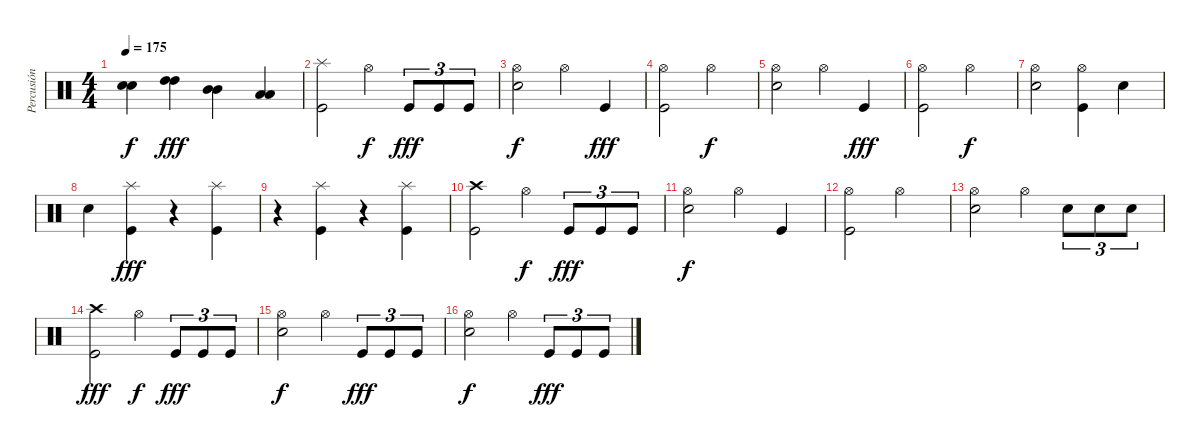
\track ("Percusión" "Percusión") {instrument percussion}
\staff {score}
\articulation defaults
\ts (4 4)
\tempo 175
\clef neutral
\ks c
("Electric Snare (hit)" "Electric Snare (hit)").4{bd 480 dy f} ("High Tom (hit)" "High Tom (hit)").4{dy fff} ("Mid Tom (hit)" "Mid Tom (hit)").4 ("Low Tom (hit)" "Low Tom (hit)").4 |
("Splash (hit)" "Kick (hit)").2 "Hi-Hat (open)".4{dy f} "Kick (hit)".8{tu (3 2) dy fff} "Kick (hit)".8{tu (3 2)} "Kick (hit)".8{tu (3 2)} |
("Hi-Hat (open)" "Electric Snare (hit)").2{dy f} "Hi-Hat (open)".4 "Kick (hit)".4{dy fff} |
("Hi-Hat (open)" "Kick (hit)").2 "Hi-Hat (open)".2{dy f} |
("Hi-Hat (open)" "Electric Snare (hit)").2 "Hi-Hat (open)".4 "Kick (hit)".4{dy fff} |
("Hi-Hat (open)" "Kick (hit)").2 "Hi-Hat (open)".2{dy f} |
("Hi-Hat (open)" "Electric Snare (hit)").2 ("Hi-Hat (open)" "Kick (hit)").4 "Electric Snare (hit)".4 |
"Electric Snare (hit)".4 ("Splash (hit)" "Kick (hit)").4{dy fff} r.4 ("Splash (hit)" "Kick (hit)").4 |
r.4 ("Splash (hit)" "Kick (hit)").4 r.4 ("Splash (hit)" "Kick (hit)").4 |
("Crash high (hit)" "Kick (hit)").2 "Hi-Hat (open)".4{dy f} "Kick (hit)".8{tu (3 2) dy fff} "Kick (hit)".8{tu (3 2)} "Kick (hit)".8{tu (3 2)} |
("Hi-Hat (open)" "Electric Snare (hit)").2{dy f} "Hi-Hat (open)".4 "Kick (hit)".4 |
("Hi-Hat (open)" "Kick (hit)").2 "Hi-Hat (open)".2 |
("Hi-Hat (open)" "Electric Snare (hit)").2 "Hi-Hat (open)".4 "Electric Snare (hit)".8{tu (3 2)} "Electric Snare (hit)".8{tu (3 2)} "Electric Snare (hit)".8{tu (3 2)} |
("Crash high (hit)" "Kick (hit)").2{dy fff} "Hi-Hat (open)".4{dy f} "Kick (hit)".8{tu (3 2) dy fff} "Kick (hit)".8{tu (3 2)} "Kick (hit)".8{tu (3 2)} |
("Hi-Hat (open)" "Electric Snare (hit)").2{dy f} "Hi-Hat (open)".4 "Kick (hit)".8{tu (3 2) dy fff} "Kick (hit)".8{tu (3 2)} "Kick (hit)".8{tu (3 2)} |
("Hi-Hat (open)" "Electric Snare (hit)").2{dy f} "Hi-Hat (open)".4 "Kick (hit)".8{tu (3 2) dy fff} "Kick (hit)".8{tu (3 2)} "Kick (hit)".8{tu (3 2)}
